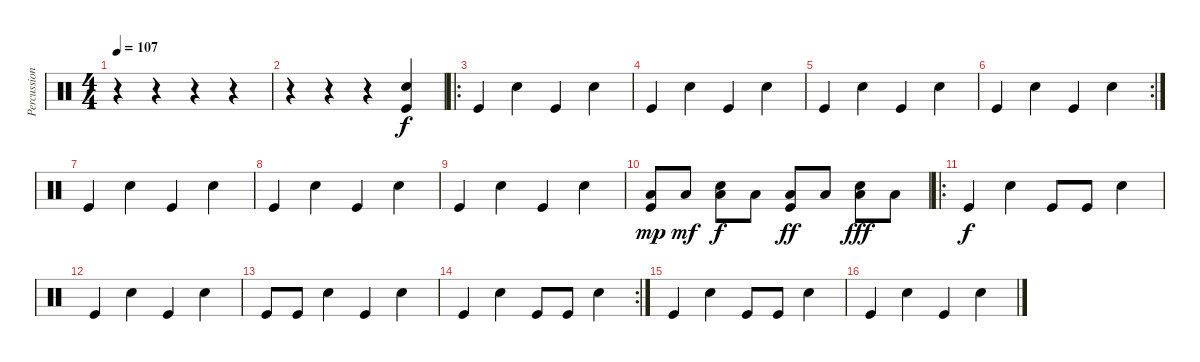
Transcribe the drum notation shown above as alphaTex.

\track ("Percussion" "Percussion") {instrument percussion}
\staff {score}
\articulation defaults
\ts (4 4)
\tempo 107
\clef neutral
\ks c
r.4{dy f} r.4 r.4 r.4 |
r.4 r.4 r.4 ("Electric Snare (hit)" "Kick (hit)").4 |
\ro "Kick (hit)".4 "Electric Snare (hit)".4 "Kick (hit)".4 "Electric Snare (hit)".4
|
"Kick (hit)".4 "Electric Snare (hit)".4 "Kick (hit)".4 "Electric Snare (hit)".4 |
"Kick (hit)".4 "Electric Snare (hit)".4 "Kick (hit)".4 "Electric Snare (hit)".4 |
\rc 2 "Kick (hit)".4 "Electric Snare (hit)".4 "Kick (hit)".4 "Electric Snare (hit)".4
|
"Kick (hit)".4 "Electric Snare (hit)".4 "Kick (hit)".4 "Electric Snare (hit)".4 |
"Kick (hit)".4 "Electric Snare (hit)".4 "Kick (hit)".4 "Electric Snare (hit)".4 |
"Kick (hit)".4 "Electric Snare (hit)".4 "Kick (hit)".4 "Electric Snare (hit)".4 |
("Kick (hit)" "Low Tom (hit)").8{dy mp} "Low Tom (hit)".8{dy mf} ("Electric Snare (hit)" "Low Tom (hit)").8{dy f} "Low Tom (hit)".8 ("Kick (hit)" "Low Tom (hit)").8{dy ff} "Low Tom (hit)".8 ("Electric Snare (hit)" "Low Tom (hit)").8{dy fff} "Low Tom (hit)".8 |
\ro "Kick (hit)".4{dy f} "Electric Snare (hit)".4 "Kick (hit)".8 "Kick (hit)".8 "Electric Snare (hit)".4
|
"Kick (hit)".4 "Electric Snare (hit)".4 "Kick (hit)".4 "Electric Snare (hit)".4 |
"Kick (hit)".8 "Kick (hit)".8 "Electric Snare (hit)".4 "Kick (hit)".4 "Electric Snare (hit)".4 |
\rc 2 "Kick (hit)".4 "Snare (hit) 2".4 "Kick (hit)".8 "Kick (hit)".8 "Electric Snare (hit)".4
|
"Kick (hit)".4 "Electric Snare (hit)".4 "Kick (hit)".8 "Kick (hit)".8 "Electric Snare (hit)".4 |
"Kick (hit)".4 "Electric Snare (hit)".4 "Kick (hit)".4 "Electric Snare (hit)".4
